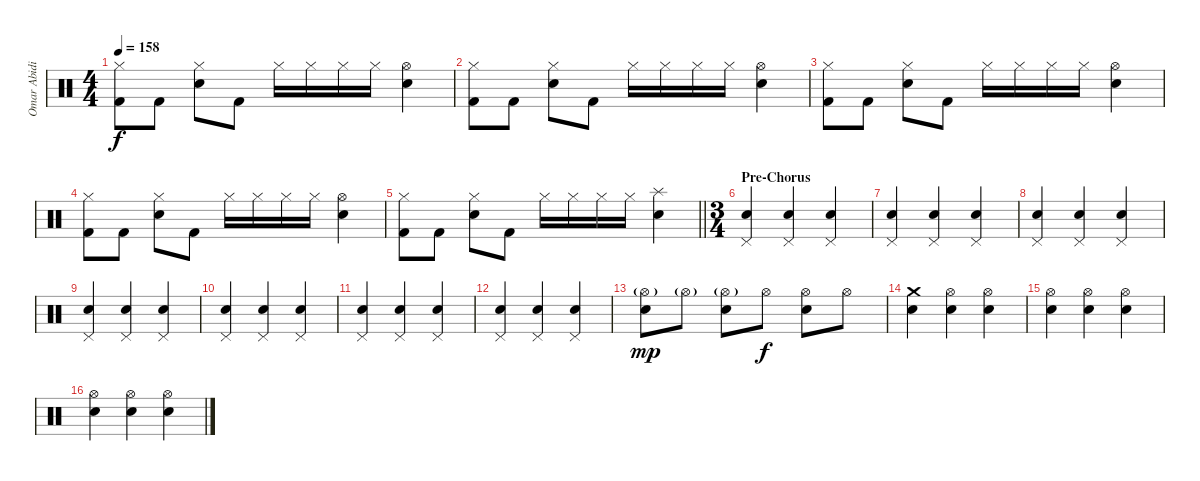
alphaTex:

\track ("Omar Abidi" "Omar Abidi") {instrument percussion}
\staff {score}
\articulation defaults
\ts (4 4)
\tempo 158
\clef neutral
\ks c
("Hi-Hat (closed)" "Kick (hit) 2").8{dy f} "Kick (hit) 2".8 ("Hi-Hat (closed)" "Snare (hit) 2").8 "Kick (hit) 2".8 "Hi-Hat (closed)".16 "Hi-Hat (closed)".16 "Hi-Hat (closed)".16 "Hi-Hat (closed)".16 ("Hi-Hat (open)" "Snare (hit) 2").4 |
("Hi-Hat (closed)" "Kick (hit) 2").8 "Kick (hit) 2".8 ("Hi-Hat (closed)" "Snare (hit) 2").8 "Kick (hit) 2".8 "Hi-Hat (closed)".16 "Hi-Hat (closed)".16 "Hi-Hat (closed)".16 "Hi-Hat (closed)".16 ("Hi-Hat (open)" "Snare (hit) 2").4 |
("Hi-Hat (closed)" "Kick (hit) 2").8 "Kick (hit) 2".8 ("Hi-Hat (closed)" "Snare (hit) 2").8 "Kick (hit) 2".8 "Hi-Hat (closed)".16 "Hi-Hat (closed)".16 "Hi-Hat (closed)".16 "Hi-Hat (closed)".16 ("Hi-Hat (open)" "Snare (hit) 2").4 |
("Hi-Hat (closed)" "Kick (hit) 2").8 "Kick (hit) 2".8 ("Hi-Hat (closed)" "Snare (hit) 2").8 "Kick (hit) 2".8 "Hi-Hat (closed)".16 "Hi-Hat (closed)".16 "Hi-Hat (closed)".16 "Hi-Hat (closed)".16 ("Hi-Hat (open)" "Snare (hit) 2").4 |
\barLineRight lightlight
("Hi-Hat (closed)" "Kick (hit) 2").8 "Kick (hit) 2".8 ("Hi-Hat (closed)" "Snare (hit) 2").8 "Kick (hit) 2".8 "Hi-Hat (closed)".16 "Hi-Hat (closed)".16 "Hi-Hat (closed)".16 "Hi-Hat (closed)".16 ("Splash (hit)" "Snare (hit) 2").4 |
\ts (3 4)
\section ("" "Pre-Chorus")
("Pedal Hi-Hat (hit)" "Snare (hit) 2").4{volume 6} ("Pedal Hi-Hat (hit)" "Snare (hit) 2").4 ("Pedal Hi-Hat (hit)" "Snare (hit) 2").4 |
("Pedal Hi-Hat (hit)" "Snare (hit) 2").4 ("Pedal Hi-Hat (hit)" "Snare (hit) 2").4 ("Pedal Hi-Hat (hit)" "Snare (hit) 2").4 |
("Pedal Hi-Hat (hit)" "Snare (hit) 2").4 ("Pedal Hi-Hat (hit)" "Snare (hit) 2").4 ("Pedal Hi-Hat (hit)" "Snare (hit) 2").4 |
("Pedal Hi-Hat (hit)" "Snare (hit) 2").4 ("Pedal Hi-Hat (hit)" "Snare (hit) 2").4 ("Pedal Hi-Hat (hit)" "Snare (hit) 2").4 |
("Pedal Hi-Hat (hit)" "Snare (hit) 2").4 ("Pedal Hi-Hat (hit)" "Snare (hit) 2").4 ("Pedal Hi-Hat (hit)" "Snare (hit) 2").4 |
("Pedal Hi-Hat (hit)" "Snare (hit) 2").4 ("Pedal Hi-Hat (hit)" "Snare (hit) 2").4 ("Pedal Hi-Hat (hit)" "Snare (hit) 2").4 |
("Pedal Hi-Hat (hit)" "Snare (hit) 2").4 ("Pedal Hi-Hat (hit)" "Snare (hit) 2").4 ("Pedal Hi-Hat (hit)" "Snare (hit) 2").4 |
("Hi-Hat (open)"{g} "Snare (hit) 2").8{dy mp} "Hi-Hat (open)"{g}.8 ("Hi-Hat (open)"{g} "Snare (hit) 2").8 "Hi-Hat (open)".8{dy f} ("Hi-Hat (open)" "Snare (hit) 2").8 "Hi-Hat (open)".8 |
("Crash medium (hit)" "Snare (hit) 2").4 ("Hi-Hat (open)" "Snare (hit) 2").4 ("Hi-Hat (open)" "Snare (hit) 2").4 |
("Hi-Hat (open)" "Snare (hit) 2").4 ("Hi-Hat (open)" "Snare (hit) 2").4 ("Hi-Hat (open)" "Snare (hit) 2").4 |
("Hi-Hat (open)" "Snare (hit) 2").4 ("Hi-Hat (open)" "Snare (hit) 2").4 ("Hi-Hat (open)" "Snare (hit) 2").4
